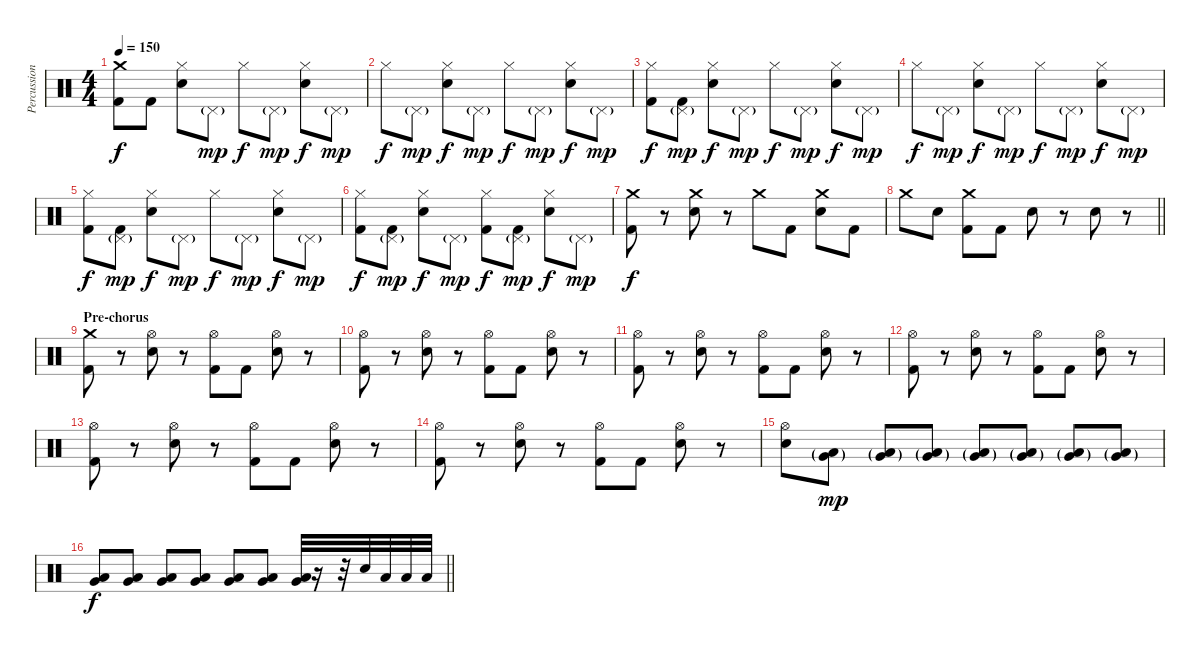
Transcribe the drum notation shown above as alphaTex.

\track ("Percussion" "Percussion") {instrument percussion}
\staff {score}
\articulation defaults
\ts (4 4)
\tempo 150
\clef neutral
\ks c
("Crash medium (hit)" "Kick (hit) 2").8{dy f} "Kick (hit) 2".8 ("Hi-Hat (closed)" "Electric Snare (hit)").8 "Pedal Hi-Hat (hit)"{g}.8{dy mp} "Hi-Hat (closed)".8{dy f} "Pedal Hi-Hat (hit)"{g}.8{dy mp} ("Hi-Hat (closed)" "Electric Snare (hit)").8{dy f} "Pedal Hi-Hat (hit)"{g}.8{dy mp} |
"Hi-Hat (closed)".8{dy f} "Pedal Hi-Hat (hit)"{g}.8{dy mp} ("Hi-Hat (closed)" "Electric Snare (hit)").8{dy f} "Pedal Hi-Hat (hit)"{g}.8{dy mp} "Hi-Hat (closed)".8{dy f} "Pedal Hi-Hat (hit)"{g}.8{dy mp} ("Hi-Hat (closed)" "Electric Snare (hit)").8{dy f} "Pedal Hi-Hat (hit)"{g}.8{dy mp} |
("Hi-Hat (closed)" "Kick (hit) 2").8{dy f} ("Pedal Hi-Hat (hit)"{g} "Kick (hit) 2").8{dy mp} ("Hi-Hat (closed)" "Electric Snare (hit)").8{dy f} "Pedal Hi-Hat (hit)"{g}.8{dy mp} "Hi-Hat (closed)".8{dy f} "Pedal Hi-Hat (hit)"{g}.8{dy mp} ("Hi-Hat (closed)" "Electric Snare (hit)").8{dy f} "Pedal Hi-Hat (hit)"{g}.8{dy mp} |
"Hi-Hat (closed)".8{dy f} "Pedal Hi-Hat (hit)"{g}.8{dy mp} ("Hi-Hat (closed)" "Electric Snare (hit)").8{dy f} "Pedal Hi-Hat (hit)"{g}.8{dy mp} "Hi-Hat (closed)".8{dy f} "Pedal Hi-Hat (hit)"{g}.8{dy mp} ("Hi-Hat (closed)" "Electric Snare (hit)").8{dy f} "Pedal Hi-Hat (hit)"{g}.8{dy mp} |
("Hi-Hat (closed)" "Kick (hit) 2").8{dy f} ("Pedal Hi-Hat (hit)"{g} "Kick (hit) 2").8{dy mp} ("Hi-Hat (closed)" "Electric Snare (hit)").8{dy f} "Pedal Hi-Hat (hit)"{g}.8{dy mp} "Hi-Hat (closed)".8{dy f} "Pedal Hi-Hat (hit)"{g}.8{dy mp} ("Hi-Hat (closed)" "Electric Snare (hit)").8{dy f} "Pedal Hi-Hat (hit)"{g}.8{dy mp} |
("Hi-Hat (closed)" "Kick (hit) 2").8{dy f} ("Pedal Hi-Hat (hit)"{g} "Kick (hit) 2").8{dy mp} ("Hi-Hat (closed)" "Electric Snare (hit)").8{dy f} "Pedal Hi-Hat (hit)"{g}.8{dy mp} ("Hi-Hat (closed)" "Kick (hit) 2").8{dy f} ("Pedal Hi-Hat (hit)"{g} "Kick (hit) 2").8{dy mp} ("Hi-Hat (closed)" "Electric Snare (hit)").8{dy f} "Pedal Hi-Hat (hit)"{g}.8{dy mp} |
("Crash medium (hit)" "Kick (hit) 2").8{dy f} r.8 ("Crash medium (hit)" "Electric Snare (hit)").8 r.8 "Crash medium (hit)".8 "Kick (hit) 2".8 ("Crash medium (hit)" "Electric Snare (hit)").8 "Kick (hit) 2".8 |
\barLineRight lightlight "Crash medium (hit)".8 "Electric Snare (hit)".8
("Crash medium (hit)" "Kick (hit) 2").8 "Kick (hit) 2".8 "Electric Snare (hit)".8 r.8 "Electric Snare (hit)".8 r.8 |
\section ("" "Pre-chorus")
("Crash medium (hit)" "Kick (hit) 2").8 r.8 ("Hi-Hat (open)" "Electric Snare (hit)").8 r.8 ("Hi-Hat (open)" "Kick (hit) 2").8 "Kick (hit) 2".8 ("Hi-Hat (open)" "Electric Snare (hit)").8 r.8 |
("Hi-Hat (open)" "Kick (hit) 2").8 r.8 ("Hi-Hat (open)" "Electric Snare (hit)").8 r.8 ("Hi-Hat (open)" "Kick (hit) 2").8 "Kick (hit) 2".8 ("Hi-Hat (open)" "Electric Snare (hit)").8 r.8 |
("Hi-Hat (open)" "Kick (hit) 2").8 r.8 ("Hi-Hat (open)" "Electric Snare (hit)").8 r.8 ("Hi-Hat (open)" "Kick (hit) 2").8 "Kick (hit) 2".8 ("Hi-Hat (open)" "Electric Snare (hit)").8 r.8 |
("Hi-Hat (open)" "Kick (hit) 2").8 r.8 ("Hi-Hat (open)" "Electric Snare (hit)").8 r.8 ("Hi-Hat (open)" "Kick (hit) 2").8 "Kick (hit) 2".8 ("Hi-Hat (open)" "Electric Snare (hit)").8 r.8 |
("Hi-Hat (open)" "Kick (hit) 2").8 r.8 ("Hi-Hat (open)" "Electric Snare (hit)").8 r.8 ("Hi-Hat (open)" "Kick (hit) 2").8 "Kick (hit) 2".8 ("Hi-Hat (open)" "Electric Snare (hit)").8 r.8 |
("Hi-Hat (open)" "Kick (hit) 2").8 r.8 ("Hi-Hat (open)" "Electric Snare (hit)").8 r.8 ("Hi-Hat (open)" "Kick (hit) 2").8 "Kick (hit) 2".8 ("Hi-Hat (open)" "Electric Snare (hit)").8 r.8 |
("Hi-Hat (open)" "Electric Snare (hit)").8 ("Very Low Tom (hit)"{g} "Low Tom (hit)"{g}).8{dy mp} ("Very Low Tom (hit)"{g} "Low Tom (hit)"{g}).8 ("Very Low Tom (hit)"{g} "Low Tom (hit)"{g}).8 ("Very Low Tom (hit)"{g} "Low Tom (hit)"{g}).8 ("Very Low Tom (hit)"{g} "Low Tom (hit)"{g}).8 ("Very Low Tom (hit)"{g} "Low Tom (hit)"{g}).8 ("Very Low Tom (hit)"{g} "Low Tom (hit)"{g}).8 |
\barLineRight lightlight
("Very Low Tom (hit)" "Low Tom (hit)").8{dy f} ("Very Low Tom (hit)" "Low Tom (hit)").8 ("Very Low Tom (hit)" "Low Tom (hit)").8 ("Very Low Tom (hit)" "Low Tom (hit)").8 ("Very Low Tom (hit)" "Low Tom (hit)").8 ("Very Low Tom (hit)" "Low Tom (hit)").8 ("Very Low Tom (hit)" "Low Tom (hit)").32 r.16 r.32 "Electric Snare (hit)".32 "Low Tom (hit)".32 "Low Tom (hit)".32 "Low Tom (hit)".32
